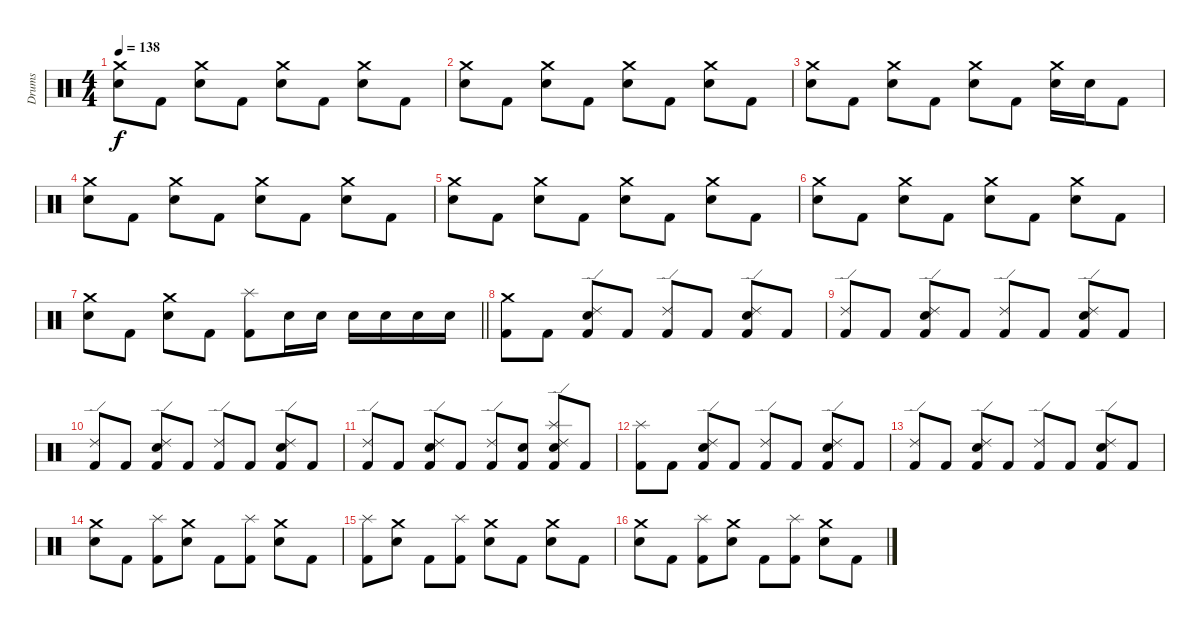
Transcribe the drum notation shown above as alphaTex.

\track ("Drums" "Drums") {instrument percussion}
\staff {score}
\articulation defaults
\ts (4 4)
\tempo 138
\clef neutral
\ks c
("Crash medium (hit)" "Snare (hit) 2").8{dy f} "Kick (hit) 2".8 ("Crash medium (hit)" "Snare (hit) 2").8 "Kick (hit) 2".8 ("Crash medium (hit)" "Snare (hit) 2").8 "Kick (hit) 2".8 ("Crash medium (hit)" "Snare (hit) 2").8 "Kick (hit) 2".8 |
("Crash medium (hit)" "Snare (hit) 2").8 "Kick (hit) 2".8 ("Crash medium (hit)" "Snare (hit) 2").8 "Kick (hit) 2".8 ("Crash medium (hit)" "Snare (hit) 2").8 "Kick (hit) 2".8 ("Crash medium (hit)" "Snare (hit) 2").8 "Kick (hit) 2".8 |
("Crash medium (hit)" "Snare (hit) 2").8 "Kick (hit) 2".8 ("Crash medium (hit)" "Snare (hit) 2").8 "Kick (hit) 2".8 ("Crash medium (hit)" "Snare (hit) 2").8 "Kick (hit) 2".8 ("Crash medium (hit)" "Snare (hit) 2").16 "Snare (hit) 2".16 "Kick (hit) 2".8 |
("Crash medium (hit)" "Snare (hit) 2").8 "Kick (hit) 2".8 ("Crash medium (hit)" "Snare (hit) 2").8 "Kick (hit) 2".8 ("Crash medium (hit)" "Snare (hit) 2").8 "Kick (hit) 2".8 ("Crash medium (hit)" "Snare (hit) 2").8 "Kick (hit) 2".8 |
("Crash medium (hit)" "Snare (hit) 2").8 "Kick (hit) 2".8 ("Crash medium (hit)" "Snare (hit) 2").8 "Kick (hit) 2".8 ("Crash medium (hit)" "Snare (hit) 2").8 "Kick (hit) 2".8 ("Crash medium (hit)" "Snare (hit) 2").8 "Kick (hit) 2".8 |
("Crash medium (hit)" "Snare (hit) 2").8 "Kick (hit) 2".8 ("Crash medium (hit)" "Snare (hit) 2").8 "Kick (hit) 2".8 ("Crash medium (hit)" "Snare (hit) 2").8 "Kick (hit) 2".8 ("Crash medium (hit)" "Snare (hit) 2").8 "Kick (hit) 2".8 |
\barLineRight lightlight
("Crash medium (hit)" "Snare (hit) 2").8 "Kick (hit) 2".8 ("Crash medium (hit)" "Snare (hit) 2").8 "Kick (hit) 2".8 ("Splash (hit)" "Kick (hit) 2").8 "Snare (hit) 2".16 "Snare (hit) 2".16 "Snare (hit) 2".16 "Snare (hit) 2".16 "Snare (hit) 2".16 "Snare (hit) 2".16 |
\section ("" "")
("Crash medium (hit)" "Kick (hit) 2").8 "Kick (hit) 2".8 ("Ride (edge) 2" "Snare (hit) 2" "Kick (hit) 2").8 "Kick (hit) 2".8 ("Ride (edge) 2" "Kick (hit) 2").8 "Kick (hit) 2".8 ("Ride (edge) 2" "Snare (hit) 2" "Kick (hit) 2").8 "Kick (hit) 2".8 |
("Ride (edge) 2" "Kick (hit) 2").8 "Kick (hit) 2".8 ("Ride (edge) 2" "Snare (hit) 2" "Kick (hit) 2").8 "Kick (hit) 2".8 ("Ride (edge) 2" "Kick (hit) 2").8 "Kick (hit) 2".8 ("Ride (edge) 2" "Snare (hit) 2" "Kick (hit) 2").8 "Kick (hit) 2".8 |
("Ride (edge) 2" "Kick (hit) 2").8 "Kick (hit) 2".8 ("Ride (edge) 2" "Snare (hit) 2" "Kick (hit) 2").8 "Kick (hit) 2".8 ("Ride (edge) 2" "Kick (hit) 2").8 "Kick (hit) 2".8 ("Ride (edge) 2" "Snare (hit) 2" "Kick (hit) 2").8 "Kick (hit) 2".8 |
("Ride (edge) 2" "Kick (hit) 2").8 "Kick (hit) 2".8 ("Ride (edge) 2" "Snare (hit) 2" "Kick (hit) 2").8 "Kick (hit) 2".8 ("Ride (edge) 2" "Kick (hit) 2").8 ("Snare (hit) 2" "Kick (hit) 2").8 ("Splash (hit)" "Ride (edge) 2" "Snare (hit) 2" "Kick (hit) 2").8 "Kick (hit) 2".8 |
("Splash (hit)" "Kick (hit) 2").8 "Kick (hit) 2".8 ("Ride (edge) 2" "Snare (hit) 2" "Kick (hit) 2").8 "Kick (hit) 2".8 ("Ride (edge) 2" "Kick (hit) 2").8 "Kick (hit) 2".8 ("Ride (edge) 2" "Snare (hit) 2" "Kick (hit) 2").8 "Kick (hit) 2".8 |
("Ride (edge) 2" "Kick (hit) 2").8 "Kick (hit) 2".8 ("Ride (edge) 2" "Snare (hit) 2" "Kick (hit) 2").8 "Kick (hit) 2".8 ("Ride (edge) 2" "Kick (hit) 2").8 "Kick (hit) 2".8 ("Ride (edge) 2" "Snare (hit) 2" "Kick (hit) 2").8 "Kick (hit) 2".8 |
("Crash medium (hit)" "Snare (hit) 2").8 "Kick (hit) 2".8 ("Splash (hit)" "Kick (hit) 2").8 ("Crash medium (hit)" "Snare (hit) 2").8 "Kick (hit) 2".8 ("Splash (hit)" "Kick (hit) 2").8 ("Crash medium (hit)" "Snare (hit) 2").8 "Kick (hit) 2".8 |
("Splash (hit)" "Kick (hit) 2").8 ("Crash medium (hit)" "Snare (hit) 2").8 "Kick (hit) 2".8 ("Splash (hit)" "Kick (hit) 2").8 ("Crash medium (hit)" "Snare (hit) 2").8 "Kick (hit) 2".8 ("Crash medium (hit)" "Snare (hit) 2").8 "Kick (hit) 2".8 |
("Crash medium (hit)" "Snare (hit) 2").8 "Kick (hit) 2".8 ("Splash (hit)" "Kick (hit) 2").8 ("Crash medium (hit)" "Snare (hit) 2").8 "Kick (hit) 2".8 ("Splash (hit)" "Kick (hit) 2").8 ("Crash medium (hit)" "Snare (hit) 2").8 "Kick (hit) 2".8
